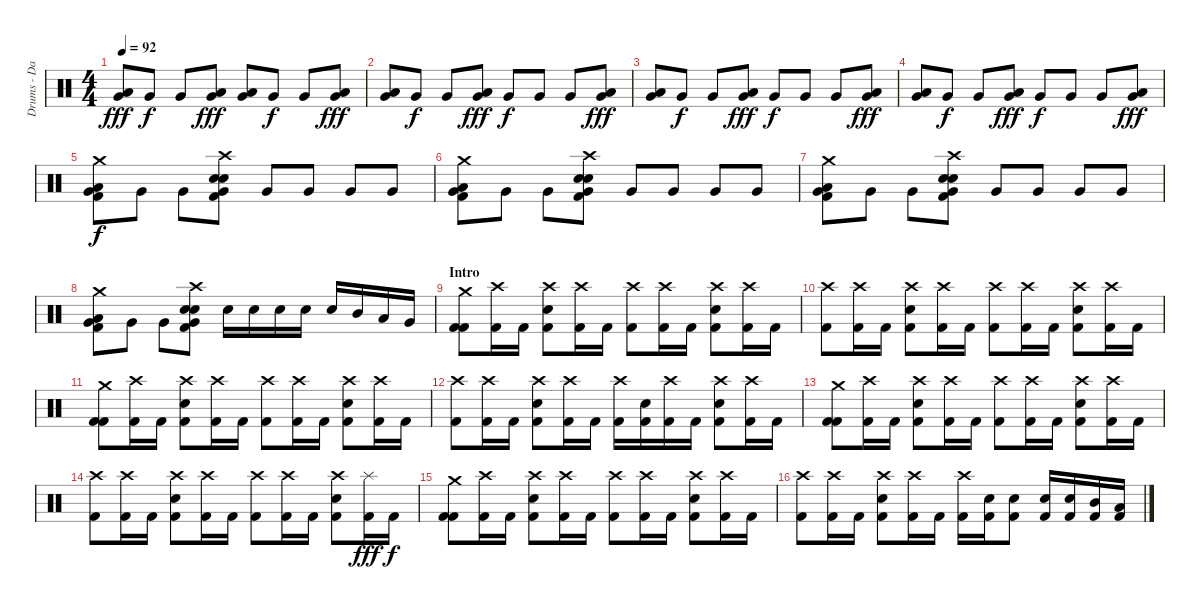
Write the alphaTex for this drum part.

\track ("Drums - Daniel Zimmermann" "Drums - Da") {instrument percussion}
\staff {score}
\articulation defaults
\ts (4 4)
\tempo 92
\clef neutral
\ks c
("Low Tom (hit)" "Very Low Tom (hit)").8{dy fff} "Very Low Tom (hit)".8{dy f} "Very Low Tom (hit)".8 ("Low Tom (hit)" "Very Low Tom (hit)").8{dy fff} ("Low Tom (hit)" "Very Low Tom (hit)").8 "Very Low Tom (hit)".8{dy f} "Very Low Tom (hit)".8 ("Low Tom (hit)" "Very Low Tom (hit)").8{dy fff} |
("Low Tom (hit)" "Very Low Tom (hit)").8 "Very Low Tom (hit)".8{dy f} "Very Low Tom (hit)".8 ("Low Tom (hit)" "Very Low Tom (hit)").8{dy fff} "Very Low Tom (hit)".8{dy f} "Very Low Tom (hit)".8 "Very Low Tom (hit)".8 ("Low Tom (hit)" "Very Low Tom (hit)").8{dy fff} |
("Low Tom (hit)" "Very Low Tom (hit)").8 "Very Low Tom (hit)".8{dy f} "Very Low Tom (hit)".8 ("Low Tom (hit)" "Very Low Tom (hit)").8{dy fff} "Very Low Tom (hit)".8{dy f} "Very Low Tom (hit)".8 "Very Low Tom (hit)".8 ("Low Tom (hit)" "Very Low Tom (hit)").8{dy fff} |
("Low Tom (hit)" "Very Low Tom (hit)").8 "Very Low Tom (hit)".8{dy f} "Very Low Tom (hit)".8 ("Low Tom (hit)" "Very Low Tom (hit)").8{dy fff} "Very Low Tom (hit)".8{dy f} "Very Low Tom (hit)".8 "Very Low Tom (hit)".8 ("Low Tom (hit)" "Very Low Tom (hit)").8{dy fff} |
("Kick (hit) 2" "Crash medium (hit)" "Low Tom (hit)" "Very Low Tom (hit)").8{dy f} "Very Low Tom (hit)".8 "Very Low Tom (hit)".8 ("Kick (hit) 2" "Electric Snare (hit)" "Crash high (hit)" "Electric Snare (hit)" "Very Low Tom (hit)").8 "Very Low Tom (hit)".8 "Very Low Tom (hit)".8 "Very Low Tom (hit)".8 "Very Low Tom (hit)".8 |
("Kick (hit) 2" "Crash medium (hit)" "Low Tom (hit)" "Very Low Tom (hit)").8 "Very Low Tom (hit)".8 "Very Low Tom (hit)".8 ("Kick (hit) 2" "Electric Snare (hit)" "Crash high (hit)" "Electric Snare (hit)" "Very Low Tom (hit)").8 "Very Low Tom (hit)".8 "Very Low Tom (hit)".8 "Very Low Tom (hit)".8 "Very Low Tom (hit)".8 |
("Kick (hit) 2" "Crash medium (hit)" "Low Tom (hit)" "Very Low Tom (hit)").8 "Very Low Tom (hit)".8 "Very Low Tom (hit)".8 ("Kick (hit) 2" "Electric Snare (hit)" "Crash high (hit)" "Electric Snare (hit)" "Very Low Tom (hit)").8 "Very Low Tom (hit)".8 "Very Low Tom (hit)".8 "Very Low Tom (hit)".8 "Very Low Tom (hit)".8 |
("Kick (hit) 2" "Crash medium (hit)" "Low Tom (hit)" "Very Low Tom (hit)").8 "Very Low Tom (hit)".8 "Very Low Tom (hit)".8 ("Kick (hit) 2" "Electric Snare (hit)" "Crash high (hit)" "Electric Snare (hit)" "Very Low Tom (hit)").8 "Electric Snare (hit)".16 "Electric Snare (hit)".16 "Electric Snare (hit)".16 "Electric Snare (hit)".16 "Electric Snare (hit)".16 "Mid Tom (hit)".16 "Low Tom (hit)".16 "Very Low Tom (hit)".16 |
\section ("" "Intro")
("Kick (hit) 2" "Kick (hit) 2" "Crash medium (hit)").8 ("Kick (hit) 2" "Crash high (hit)").16 "Kick (hit) 2".16 ("Kick (hit) 2" "Electric Snare (hit)" "Crash high (hit)").8 ("Kick (hit) 2" "Crash high (hit)").16 "Kick (hit) 2".16 ("Kick (hit) 2" "Crash high (hit)").8 ("Kick (hit) 2" "Crash high (hit)").16 "Kick (hit) 2".16 ("Kick (hit) 2" "Electric Snare (hit)" "Crash high (hit)").8 ("Kick (hit) 2" "Crash high (hit)").16 "Kick (hit) 2".16 |
("Kick (hit) 2" "Crash high (hit)").8 ("Kick (hit) 2" "Crash high (hit)").16 "Kick (hit) 2".16 ("Kick (hit) 2" "Electric Snare (hit)" "Crash high (hit)").8 ("Kick (hit) 2" "Crash high (hit)").16 "Kick (hit) 2".16 ("Kick (hit) 2" "Crash high (hit)").8 ("Kick (hit) 2" "Crash high (hit)").16 "Kick (hit) 2".16 ("Kick (hit) 2" "Electric Snare (hit)" "Crash high (hit)").8 ("Kick (hit) 2" "Crash high (hit)").16 "Kick (hit) 2".16 |
("Kick (hit) 2" "Kick (hit) 2" "Crash medium (hit)").8 ("Kick (hit) 2" "Crash high (hit)").16 "Kick (hit) 2".16 ("Kick (hit) 2" "Electric Snare (hit)" "Crash high (hit)").8 ("Kick (hit) 2" "Crash high (hit)").16 "Kick (hit) 2".16 ("Kick (hit) 2" "Crash high (hit)").8 ("Kick (hit) 2" "Crash high (hit)").16 "Kick (hit) 2".16 ("Kick (hit) 2" "Electric Snare (hit)" "Crash high (hit)").8 ("Kick (hit) 2" "Crash high (hit)").16 "Kick (hit) 2".16 |
("Kick (hit) 2" "Crash high (hit)").8 ("Kick (hit) 2" "Crash high (hit)").16 "Kick (hit) 2".16 ("Kick (hit) 2" "Electric Snare (hit)" "Crash high (hit)").8 ("Kick (hit) 2" "Crash high (hit)").16 "Kick (hit) 2".16 ("Kick (hit) 2" "Crash high (hit)").16 ("Kick (hit) 2" "Electric Snare (hit)").16 ("Kick (hit) 2" "Crash high (hit)").16 "Kick (hit) 2".16 ("Kick (hit) 2" "Electric Snare (hit)" "Crash high (hit)").8 ("Kick (hit) 2" "Crash high (hit)").16 "Kick (hit) 2".16 |
("Kick (hit) 2" "Kick (hit) 2" "Crash medium (hit)").8 ("Kick (hit) 2" "Crash high (hit)").16 "Kick (hit) 2".16 ("Kick (hit) 2" "Electric Snare (hit)" "Crash high (hit)").8 ("Kick (hit) 2" "Crash high (hit)").16 "Kick (hit) 2".16 ("Kick (hit) 2" "Crash high (hit)").8 ("Kick (hit) 2" "Crash high (hit)").16 "Kick (hit) 2".16 ("Kick (hit) 2" "Electric Snare (hit)" "Crash high (hit)").8 ("Kick (hit) 2" "Crash high (hit)").16 "Kick (hit) 2".16 |
("Kick (hit) 2" "Crash high (hit)").8 ("Kick (hit) 2" "Crash high (hit)").16 "Kick (hit) 2".16 ("Kick (hit) 2" "Electric Snare (hit)" "Crash high (hit)").8 ("Kick (hit) 2" "Crash high (hit)").16 "Kick (hit) 2".16 ("Kick (hit) 2" "Crash high (hit)").8 ("Kick (hit) 2" "Crash high (hit)").16 "Kick (hit) 2".16 ("Kick (hit) 2" "Electric Snare (hit)" "Crash high (hit)").8 ("Kick (hit) 2" "Splash (hit)").16{dy fff} "Kick (hit) 2".16{dy f} |
("Kick (hit) 2" "Kick (hit) 2" "Crash medium (hit)").8 ("Kick (hit) 2" "Crash high (hit)").16 "Kick (hit) 2".16 ("Kick (hit) 2" "Electric Snare (hit)" "Crash high (hit)").8 ("Kick (hit) 2" "Crash high (hit)").16 "Kick (hit) 2".16 ("Kick (hit) 2" "Crash high (hit)").8 ("Kick (hit) 2" "Crash high (hit)").16 "Kick (hit) 2".16 ("Kick (hit) 2" "Electric Snare (hit)" "Crash high (hit)").8 ("Kick (hit) 2" "Crash high (hit)").16 "Kick (hit) 2".16 |
("Kick (hit) 2" "Crash high (hit)").8 ("Kick (hit) 2" "Crash high (hit)").16 "Kick (hit) 2".16 ("Kick (hit) 2" "Electric Snare (hit)" "Crash high (hit)").8 ("Kick (hit) 2" "Crash high (hit)").16 "Kick (hit) 2".16 ("Kick (hit) 2" "Crash high (hit)").16 ("Kick (hit) 2" "Electric Snare (hit)").16 ("Kick (hit) 2" "Electric Snare (hit)").8 ("Kick (hit) 2" "Electric Snare (hit)").16 ("Kick (hit) 2" "Electric Snare (hit)").16 ("Kick (hit) 2" "Mid Tom (hit)").16 ("Kick (hit) 2" "Low Tom (hit)").16
